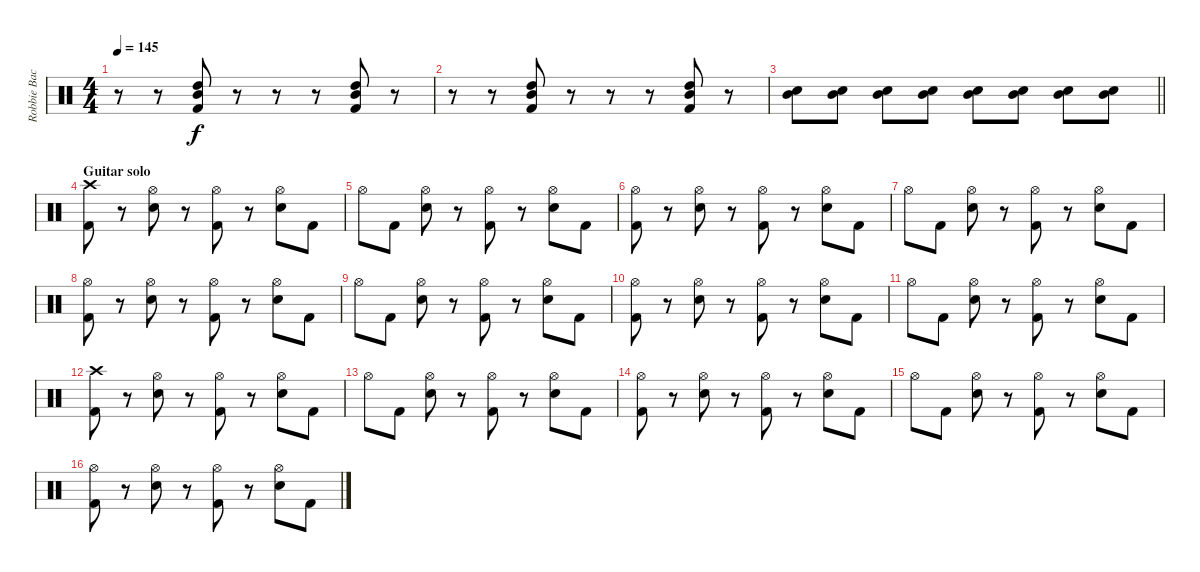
\track ("Robbie Bachman" "Robbie Bac") {instrument percussion}
\staff {score}
\articulation defaults
\ts (4 4)
\tempo 145
\clef neutral
\ks c
r.8{dy f} r.8 ("Mid Tom (hit)" "High Tom (hit)" "Kick (hit) 2").8 r.8 r.8 r.8 ("Mid Tom (hit)" "High Tom (hit)" "Kick (hit) 2").8 r.8 |
r.8 r.8 ("Mid Tom (hit)" "High Tom (hit)" "Kick (hit) 2").8 r.8 r.8 r.8 ("Mid Tom (hit)" "High Tom (hit)" "Kick (hit) 2").8 r.8 |
\barLineRight lightlight
("Mid Tom (hit)" "Snare (hit) 2").8 ("Mid Tom (hit)" "Snare (hit) 2").8 ("Mid Tom (hit)" "Snare (hit) 2").8 ("Mid Tom (hit)" "Snare (hit) 2").8 ("Mid Tom (hit)" "Snare (hit) 2").8 ("Mid Tom (hit)" "Snare (hit) 2").8 ("Mid Tom (hit)" "Snare (hit) 2").8 ("Mid Tom (hit)" "Snare (hit) 2").8 |
\section ("" "Guitar solo")
("Crash high (hit)" "Kick (hit) 2").8 r.8 ("Hi-Hat (open)" "Snare (hit) 2").8 r.8 ("Hi-Hat (open)" "Kick (hit) 2").8 r.8 ("Hi-Hat (open)" "Snare (hit) 2").8 "Kick (hit) 2".8 |
"Hi-Hat (open)".8 "Kick (hit) 2".8 ("Hi-Hat (open)" "Snare (hit) 2").8 r.8 ("Hi-Hat (open)" "Kick (hit) 2").8 r.8 ("Hi-Hat (open)" "Snare (hit) 2").8 "Kick (hit) 2".8 |
("Hi-Hat (open)" "Kick (hit) 2").8 r.8 ("Hi-Hat (open)" "Snare (hit) 2").8 r.8 ("Hi-Hat (open)" "Kick (hit) 2").8 r.8 ("Hi-Hat (open)" "Snare (hit) 2").8 "Kick (hit) 2".8 |
"Hi-Hat (open)".8 "Kick (hit) 2".8 ("Hi-Hat (open)" "Snare (hit) 2").8 r.8 ("Hi-Hat (open)" "Kick (hit) 2").8 r.8 ("Hi-Hat (open)" "Snare (hit) 2").8 "Kick (hit) 2".8 |
("Hi-Hat (open)" "Kick (hit) 2").8 r.8 ("Hi-Hat (open)" "Snare (hit) 2").8 r.8 ("Hi-Hat (open)" "Kick (hit) 2").8 r.8 ("Hi-Hat (open)" "Snare (hit) 2").8 "Kick (hit) 2".8 |
"Hi-Hat (open)".8 "Kick (hit) 2".8 ("Hi-Hat (open)" "Snare (hit) 2").8 r.8 ("Hi-Hat (open)" "Kick (hit) 2").8 r.8 ("Hi-Hat (open)" "Snare (hit) 2").8 "Kick (hit) 2".8 |
("Hi-Hat (open)" "Kick (hit) 2").8 r.8 ("Hi-Hat (open)" "Snare (hit) 2").8 r.8 ("Hi-Hat (open)" "Kick (hit) 2").8 r.8 ("Hi-Hat (open)" "Snare (hit) 2").8 "Kick (hit) 2".8 |
"Hi-Hat (open)".8 "Kick (hit) 2".8 ("Hi-Hat (open)" "Snare (hit) 2").8 r.8 ("Hi-Hat (open)" "Kick (hit) 2").8 r.8 ("Hi-Hat (open)" "Snare (hit) 2").8 "Kick (hit) 2".8 |
("Crash high (hit)" "Kick (hit) 2").8 r.8 ("Hi-Hat (open)" "Snare (hit) 2").8 r.8 ("Hi-Hat (open)" "Kick (hit) 2").8 r.8 ("Hi-Hat (open)" "Snare (hit) 2").8 "Kick (hit) 2".8 |
"Hi-Hat (open)".8 "Kick (hit) 2".8 ("Hi-Hat (open)" "Snare (hit) 2").8 r.8 ("Hi-Hat (open)" "Kick (hit) 2").8 r.8 ("Hi-Hat (open)" "Snare (hit) 2").8 "Kick (hit) 2".8 |
("Hi-Hat (open)" "Kick (hit) 2").8 r.8 ("Hi-Hat (open)" "Snare (hit) 2").8 r.8 ("Hi-Hat (open)" "Kick (hit) 2").8 r.8 ("Hi-Hat (open)" "Snare (hit) 2").8 "Kick (hit) 2".8 |
"Hi-Hat (open)".8 "Kick (hit) 2".8 ("Hi-Hat (open)" "Snare (hit) 2").8 r.8 ("Hi-Hat (open)" "Kick (hit) 2").8 r.8 ("Hi-Hat (open)" "Snare (hit) 2").8 "Kick (hit) 2".8 |
("Hi-Hat (open)" "Kick (hit) 2").8 r.8 ("Hi-Hat (open)" "Snare (hit) 2").8 r.8 ("Hi-Hat (open)" "Kick (hit) 2").8 r.8 ("Hi-Hat (open)" "Snare (hit) 2").8 "Kick (hit) 2".8
